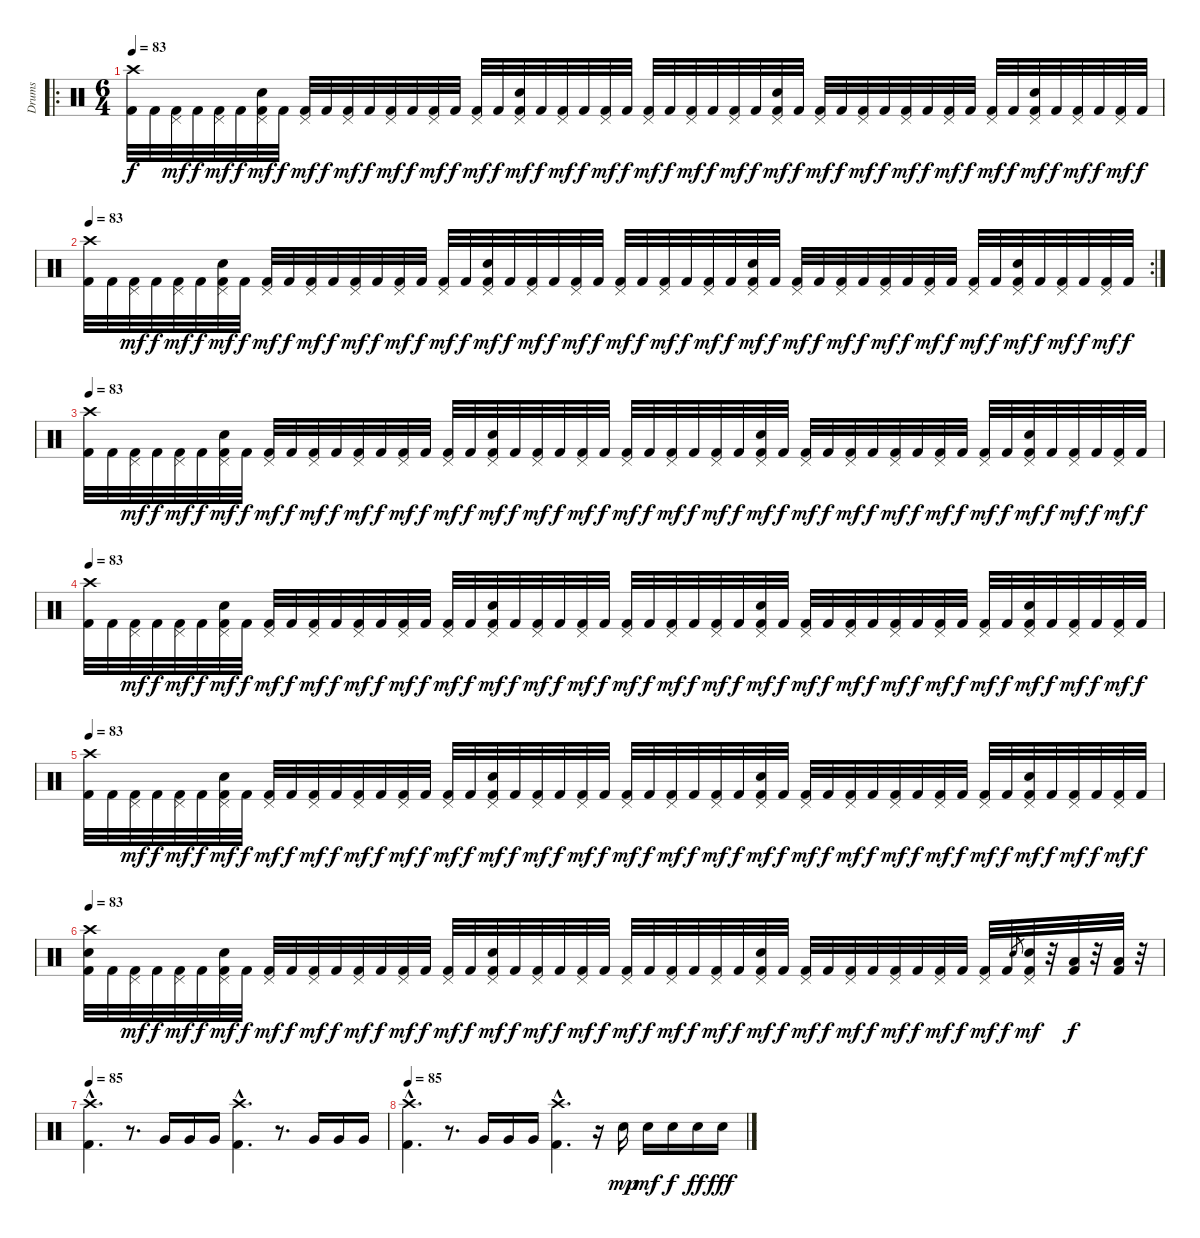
\track ("Drums" "Drums") {instrument percussion}
\staff {score}
\articulation defaults
\ro
\ts (6 4)
\tempo 83
\clef neutral
\ks c
("Crash high (hit)" "Kick (hit) 2").32{dy f} "Kick (hit) 2".32 ("Pedal Hi-Hat (hit)" "Kick (hit) 2").32{dy mf} "Kick (hit) 2".32{dy f} ("Pedal Hi-Hat (hit)" "Kick (hit) 2").32{dy mf} "Kick (hit) 2".32{dy f} ("Pedal Hi-Hat (hit)" "Electric Snare (hit)" "Kick (hit) 2").32{dy mf} "Kick (hit) 2".32{dy f} ("Pedal Hi-Hat (hit)" "Kick (hit) 2").32{dy mf} "Kick (hit) 2".32{dy f} ("Pedal Hi-Hat (hit)" "Kick (hit) 2").32{dy mf} "Kick (hit) 2".32{dy f} ("Pedal Hi-Hat (hit)" "Kick (hit) 2").32{dy mf} "Kick (hit) 2".32{dy f} ("Pedal Hi-Hat (hit)" "Kick (hit) 2").32{dy mf} "Kick (hit) 2".32{dy f} ("Pedal Hi-Hat (hit)" "Kick (hit) 2").32{dy mf} "Kick (hit) 2".32{dy f} ("Pedal Hi-Hat (hit)" "Electric Snare (hit)" "Kick (hit) 2").32{dy mf} "Kick (hit) 2".32{dy f} ("Pedal Hi-Hat (hit)" "Kick (hit) 2").32{dy mf} "Kick (hit) 2".32{dy f} ("Pedal Hi-Hat (hit)" "Kick (hit) 2").32{dy mf} "Kick (hit) 2".32{dy f} ("Pedal Hi-Hat (hit)" "Kick (hit) 2").32{dy mf} "Kick (hit) 2".32{dy f} ("Pedal Hi-Hat (hit)" "Kick (hit) 2").32{dy mf} "Kick (hit) 2".32{dy f} ("Pedal Hi-Hat (hit)" "Kick (hit) 2").32{dy mf} "Kick (hit) 2".32{dy f} ("Pedal Hi-Hat (hit)" "Electric Snare (hit)" "Kick (hit) 2").32{dy mf} "Kick (hit) 2".32{dy f} ("Pedal Hi-Hat (hit)" "Kick (hit) 2").32{dy mf} "Kick (hit) 2".32{dy f} ("Pedal Hi-Hat (hit)" "Kick (hit) 2").32{dy mf} "Kick (hit) 2".32{dy f} ("Pedal Hi-Hat (hit)" "Kick (hit) 2").32{dy mf} "Kick (hit) 2".32{dy f} ("Pedal Hi-Hat (hit)" "Kick (hit) 2").32{dy mf} "Kick (hit) 2".32{dy f} ("Pedal Hi-Hat (hit)" "Kick (hit) 2").32{dy mf} "Kick (hit) 2".32{dy f} ("Pedal Hi-Hat (hit)" "Electric Snare (hit)" "Kick (hit) 2").32{dy mf} "Kick (hit) 2".32{dy f} ("Pedal Hi-Hat (hit)" "Kick (hit) 2").32{dy mf} "Kick (hit) 2".32{dy f} ("Pedal Hi-Hat (hit)" "Kick (hit) 2").32{dy mf} "Kick (hit) 2".32{dy f} |
\rc 2
\tempo 83
("Crash high (hit)" "Kick (hit) 2").32 "Kick (hit) 2".32 ("Pedal Hi-Hat (hit)" "Kick (hit) 2").32{dy mf} "Kick (hit) 2".32{dy f} ("Pedal Hi-Hat (hit)" "Kick (hit) 2").32{dy mf} "Kick (hit) 2".32{dy f} ("Pedal Hi-Hat (hit)" "Electric Snare (hit)" "Kick (hit) 2").32{dy mf} "Kick (hit) 2".32{dy f} ("Pedal Hi-Hat (hit)" "Kick (hit) 2").32{dy mf} "Kick (hit) 2".32{dy f} ("Pedal Hi-Hat (hit)" "Kick (hit) 2").32{dy mf} "Kick (hit) 2".32{dy f} ("Pedal Hi-Hat (hit)" "Kick (hit) 2").32{dy mf} "Kick (hit) 2".32{dy f} ("Pedal Hi-Hat (hit)" "Kick (hit) 2").32{dy mf} "Kick (hit) 2".32{dy f} ("Pedal Hi-Hat (hit)" "Kick (hit) 2").32{dy mf} "Kick (hit) 2".32{dy f} ("Pedal Hi-Hat (hit)" "Electric Snare (hit)" "Kick (hit) 2").32{dy mf} "Kick (hit) 2".32{dy f} ("Pedal Hi-Hat (hit)" "Kick (hit) 2").32{dy mf} "Kick (hit) 2".32{dy f} ("Pedal Hi-Hat (hit)" "Kick (hit) 2").32{dy mf} "Kick (hit) 2".32{dy f} ("Pedal Hi-Hat (hit)" "Kick (hit) 2").32{dy mf} "Kick (hit) 2".32{dy f} ("Pedal Hi-Hat (hit)" "Kick (hit) 2").32{dy mf} "Kick (hit) 2".32{dy f} ("Pedal Hi-Hat (hit)" "Kick (hit) 2").32{dy mf} "Kick (hit) 2".32{dy f} ("Pedal Hi-Hat (hit)" "Electric Snare (hit)" "Kick (hit) 2").32{dy mf} "Kick (hit) 2".32{dy f} ("Pedal Hi-Hat (hit)" "Kick (hit) 2").32{dy mf} "Kick (hit) 2".32{dy f} ("Pedal Hi-Hat (hit)" "Kick (hit) 2").32{dy mf} "Kick (hit) 2".32{dy f} ("Pedal Hi-Hat (hit)" "Kick (hit) 2").32{dy mf} "Kick (hit) 2".32{dy f} ("Pedal Hi-Hat (hit)" "Kick (hit) 2").32{dy mf} "Kick (hit) 2".32{dy f} ("Pedal Hi-Hat (hit)" "Kick (hit) 2").32{dy mf} "Kick (hit) 2".32{dy f} ("Pedal Hi-Hat (hit)" "Electric Snare (hit)" "Kick (hit) 2").32{dy mf} "Kick (hit) 2".32{dy f} ("Pedal Hi-Hat (hit)" "Kick (hit) 2").32{dy mf} "Kick (hit) 2".32{dy f} ("Pedal Hi-Hat (hit)" "Kick (hit) 2").32{dy mf} "Kick (hit) 2".32{dy f} |
\tempo 83
("Crash high (hit)" "Kick (hit) 2").32 "Kick (hit) 2".32 ("Pedal Hi-Hat (hit)" "Kick (hit) 2").32{dy mf} "Kick (hit) 2".32{dy f} ("Pedal Hi-Hat (hit)" "Kick (hit) 2").32{dy mf} "Kick (hit) 2".32{dy f} ("Pedal Hi-Hat (hit)" "Electric Snare (hit)" "Kick (hit) 2").32{dy mf} "Kick (hit) 2".32{dy f} ("Pedal Hi-Hat (hit)" "Kick (hit) 2").32{dy mf} "Kick (hit) 2".32{dy f} ("Pedal Hi-Hat (hit)" "Kick (hit) 2").32{dy mf} "Kick (hit) 2".32{dy f} ("Pedal Hi-Hat (hit)" "Kick (hit) 2").32{dy mf} "Kick (hit) 2".32{dy f} ("Pedal Hi-Hat (hit)" "Kick (hit) 2").32{dy mf} "Kick (hit) 2".32{dy f} ("Pedal Hi-Hat (hit)" "Kick (hit) 2").32{dy mf} "Kick (hit) 2".32{dy f} ("Pedal Hi-Hat (hit)" "Electric Snare (hit)" "Kick (hit) 2").32{dy mf} "Kick (hit) 2".32{dy f} ("Pedal Hi-Hat (hit)" "Kick (hit) 2").32{dy mf} "Kick (hit) 2".32{dy f} ("Pedal Hi-Hat (hit)" "Kick (hit) 2").32{dy mf} "Kick (hit) 2".32{dy f} ("Pedal Hi-Hat (hit)" "Kick (hit) 2").32{dy mf} "Kick (hit) 2".32{dy f} ("Pedal Hi-Hat (hit)" "Kick (hit) 2").32{dy mf} "Kick (hit) 2".32{dy f} ("Pedal Hi-Hat (hit)" "Kick (hit) 2").32{dy mf} "Kick (hit) 2".32{dy f} ("Pedal Hi-Hat (hit)" "Electric Snare (hit)" "Kick (hit) 2").32{dy mf} "Kick (hit) 2".32{dy f} ("Pedal Hi-Hat (hit)" "Kick (hit) 2").32{dy mf} "Kick (hit) 2".32{dy f} ("Pedal Hi-Hat (hit)" "Kick (hit) 2").32{dy mf} "Kick (hit) 2".32{dy f} ("Pedal Hi-Hat (hit)" "Kick (hit) 2").32{dy mf} "Kick (hit) 2".32{dy f} ("Pedal Hi-Hat (hit)" "Kick (hit) 2").32{dy mf} "Kick (hit) 2".32{dy f} ("Pedal Hi-Hat (hit)" "Kick (hit) 2").32{dy mf} "Kick (hit) 2".32{dy f} ("Pedal Hi-Hat (hit)" "Electric Snare (hit)" "Kick (hit) 2").32{dy mf} "Kick (hit) 2".32{dy f} ("Pedal Hi-Hat (hit)" "Kick (hit) 2").32{dy mf} "Kick (hit) 2".32{dy f} ("Pedal Hi-Hat (hit)" "Kick (hit) 2").32{dy mf} "Kick (hit) 2".32{dy f} |
\tempo 83
("Crash high (hit)" "Kick (hit) 2").32 "Kick (hit) 2".32 ("Pedal Hi-Hat (hit)" "Kick (hit) 2").32{dy mf} "Kick (hit) 2".32{dy f} ("Pedal Hi-Hat (hit)" "Kick (hit) 2").32{dy mf} "Kick (hit) 2".32{dy f} ("Pedal Hi-Hat (hit)" "Electric Snare (hit)" "Kick (hit) 2").32{dy mf} "Kick (hit) 2".32{dy f} ("Pedal Hi-Hat (hit)" "Kick (hit) 2").32{dy mf} "Kick (hit) 2".32{dy f} ("Pedal Hi-Hat (hit)" "Kick (hit) 2").32{dy mf} "Kick (hit) 2".32{dy f} ("Pedal Hi-Hat (hit)" "Kick (hit) 2").32{dy mf} "Kick (hit) 2".32{dy f} ("Pedal Hi-Hat (hit)" "Kick (hit) 2").32{dy mf} "Kick (hit) 2".32{dy f} ("Pedal Hi-Hat (hit)" "Kick (hit) 2").32{dy mf} "Kick (hit) 2".32{dy f} ("Pedal Hi-Hat (hit)" "Electric Snare (hit)" "Kick (hit) 2").32{dy mf} "Kick (hit) 2".32{dy f} ("Pedal Hi-Hat (hit)" "Kick (hit) 2").32{dy mf} "Kick (hit) 2".32{dy f} ("Pedal Hi-Hat (hit)" "Kick (hit) 2").32{dy mf} "Kick (hit) 2".32{dy f} ("Pedal Hi-Hat (hit)" "Kick (hit) 2").32{dy mf} "Kick (hit) 2".32{dy f} ("Pedal Hi-Hat (hit)" "Kick (hit) 2").32{dy mf} "Kick (hit) 2".32{dy f} ("Pedal Hi-Hat (hit)" "Kick (hit) 2").32{dy mf} "Kick (hit) 2".32{dy f} ("Pedal Hi-Hat (hit)" "Electric Snare (hit)" "Kick (hit) 2").32{dy mf} "Kick (hit) 2".32{dy f} ("Pedal Hi-Hat (hit)" "Kick (hit) 2").32{dy mf} "Kick (hit) 2".32{dy f} ("Pedal Hi-Hat (hit)" "Kick (hit) 2").32{dy mf} "Kick (hit) 2".32{dy f} ("Pedal Hi-Hat (hit)" "Kick (hit) 2").32{dy mf} "Kick (hit) 2".32{dy f} ("Pedal Hi-Hat (hit)" "Kick (hit) 2").32{dy mf} "Kick (hit) 2".32{dy f} ("Pedal Hi-Hat (hit)" "Kick (hit) 2").32{dy mf} "Kick (hit) 2".32{dy f} ("Pedal Hi-Hat (hit)" "Electric Snare (hit)" "Kick (hit) 2").32{dy mf} "Kick (hit) 2".32{dy f} ("Pedal Hi-Hat (hit)" "Kick (hit) 2").32{dy mf} "Kick (hit) 2".32{dy f} ("Pedal Hi-Hat (hit)" "Kick (hit) 2").32{dy mf} "Kick (hit) 2".32{dy f} |
\tempo 83
("Crash high (hit)" "Kick (hit) 2").32 "Kick (hit) 2".32 ("Pedal Hi-Hat (hit)" "Kick (hit) 2").32{dy mf} "Kick (hit) 2".32{dy f} ("Pedal Hi-Hat (hit)" "Kick (hit) 2").32{dy mf} "Kick (hit) 2".32{dy f} ("Pedal Hi-Hat (hit)" "Electric Snare (hit)" "Kick (hit) 2").32{dy mf} "Kick (hit) 2".32{dy f} ("Pedal Hi-Hat (hit)" "Kick (hit) 2").32{dy mf} "Kick (hit) 2".32{dy f} ("Pedal Hi-Hat (hit)" "Kick (hit) 2").32{dy mf} "Kick (hit) 2".32{dy f} ("Pedal Hi-Hat (hit)" "Kick (hit) 2").32{dy mf} "Kick (hit) 2".32{dy f} ("Pedal Hi-Hat (hit)" "Kick (hit) 2").32{dy mf} "Kick (hit) 2".32{dy f} ("Pedal Hi-Hat (hit)" "Kick (hit) 2").32{dy mf} "Kick (hit) 2".32{dy f} ("Pedal Hi-Hat (hit)" "Electric Snare (hit)" "Kick (hit) 2").32{dy mf} "Kick (hit) 2".32{dy f} ("Pedal Hi-Hat (hit)" "Kick (hit) 2").32{dy mf} "Kick (hit) 2".32{dy f} ("Pedal Hi-Hat (hit)" "Kick (hit) 2").32{dy mf} "Kick (hit) 2".32{dy f} ("Pedal Hi-Hat (hit)" "Kick (hit) 2").32{dy mf} "Kick (hit) 2".32{dy f} ("Pedal Hi-Hat (hit)" "Kick (hit) 2").32{dy mf} "Kick (hit) 2".32{dy f} ("Pedal Hi-Hat (hit)" "Kick (hit) 2").32{dy mf} "Kick (hit) 2".32{dy f} ("Pedal Hi-Hat (hit)" "Electric Snare (hit)" "Kick (hit) 2").32{dy mf} "Kick (hit) 2".32{dy f} ("Pedal Hi-Hat (hit)" "Kick (hit) 2").32{dy mf} "Kick (hit) 2".32{dy f} ("Pedal Hi-Hat (hit)" "Kick (hit) 2").32{dy mf} "Kick (hit) 2".32{dy f} ("Pedal Hi-Hat (hit)" "Kick (hit) 2").32{dy mf} "Kick (hit) 2".32{dy f} ("Pedal Hi-Hat (hit)" "Kick (hit) 2").32{dy mf} "Kick (hit) 2".32{dy f} ("Pedal Hi-Hat (hit)" "Kick (hit) 2").32{dy mf} "Kick (hit) 2".32{dy f} ("Pedal Hi-Hat (hit)" "Electric Snare (hit)" "Kick (hit) 2").32{dy mf} "Kick (hit) 2".32{dy f} ("Pedal Hi-Hat (hit)" "Kick (hit) 2").32{dy mf} "Kick (hit) 2".32{dy f} ("Pedal Hi-Hat (hit)" "Kick (hit) 2").32{dy mf} "Kick (hit) 2".32{dy f} |
\tempo 83
("Crash high (hit)" "Electric Snare (hit)" "Kick (hit) 2").32 "Kick (hit) 2".32 ("Pedal Hi-Hat (hit)" "Kick (hit) 2").32{dy mf} "Kick (hit) 2".32{dy f} ("Pedal Hi-Hat (hit)" "Kick (hit) 2").32{dy mf} "Kick (hit) 2".32{dy f} ("Pedal Hi-Hat (hit)" "Electric Snare (hit)" "Kick (hit) 2").32{dy mf} "Kick (hit) 2".32{dy f} ("Pedal Hi-Hat (hit)" "Kick (hit) 2").32{dy mf} "Kick (hit) 2".32{dy f} ("Pedal Hi-Hat (hit)" "Kick (hit) 2").32{dy mf} "Kick (hit) 2".32{dy f} ("Pedal Hi-Hat (hit)" "Kick (hit) 2").32{dy mf} "Kick (hit) 2".32{dy f} ("Pedal Hi-Hat (hit)" "Kick (hit) 2").32{dy mf} "Kick (hit) 2".32{dy f} ("Pedal Hi-Hat (hit)" "Kick (hit) 2").32{dy mf} "Kick (hit) 2".32{dy f} ("Pedal Hi-Hat (hit)" "Electric Snare (hit)" "Kick (hit) 2").32{dy mf} "Kick (hit) 2".32{dy f} ("Pedal Hi-Hat (hit)" "Kick (hit) 2").32{dy mf} "Kick (hit) 2".32{dy f} ("Pedal Hi-Hat (hit)" "Kick (hit) 2").32{dy mf} "Kick (hit) 2".32{dy f} ("Pedal Hi-Hat (hit)" "Kick (hit) 2").32{dy mf} "Kick (hit) 2".32{dy f} ("Pedal Hi-Hat (hit)" "Kick (hit) 2").32{dy mf} "Kick (hit) 2".32{dy f} ("Pedal Hi-Hat (hit)" "Kick (hit) 2").32{dy mf} "Kick (hit) 2".32{dy f} ("Pedal Hi-Hat (hit)" "Electric Snare (hit)" "Kick (hit) 2").32{dy mf} "Kick (hit) 2".32{dy f} ("Pedal Hi-Hat (hit)" "Kick (hit) 2").32{dy mf} "Kick (hit) 2".32{dy f} ("Pedal Hi-Hat (hit)" "Kick (hit) 2").32{dy mf} "Kick (hit) 2".32{dy f} ("Pedal Hi-Hat (hit)" "Kick (hit) 2").32{dy mf} "Kick (hit) 2".32{dy f} ("Pedal Hi-Hat (hit)" "Kick (hit) 2").32{dy mf} "Kick (hit) 2".32{dy f} ("Pedal Hi-Hat (hit)" "Kick (hit) 2").32{dy mf} "Kick (hit) 2".32{dy f} "Electric Snare (hit)".8{gr} ("Pedal Hi-Hat (hit)" "Electric Snare (hit)" "Kick (hit) 2").32{dy mf} r.32 ("Low Tom (hit)" "Kick (hit) 2").32{dy f} r.32 ("Low Tom (hit)" "Kick (hit) 2").32 r.32 |
\tempo 85
("Crash high (hit)"{hac} "Kick (hit) 2"{hac}).4{d} r.8{d} "Very Low Tom (hit)".16 "Very Low Tom (hit)".16 "Very Low Tom (hit)".16 ("Crash high (hit)"{hac} "Kick (hit) 2"{hac}).4{d} r.8{d} "Very Low Tom (hit)".16 "Very Low Tom (hit)".16 "Very Low Tom (hit)".16 |
\tempo 85
("Crash high (hit)"{hac} "Kick (hit) 2"{hac}).4{d} r.8{d} "Very Low Tom (hit)".16 "Very Low Tom (hit)".16 "Very Low Tom (hit)".16 ("Crash high (hit)"{hac} "Kick (hit) 2"{hac}).4{d} r.16 "Electric Snare (hit)".16{dy mp} "Electric Snare (hit)".16{dy mf} "Electric Snare (hit)".16{dy f} "Electric Snare (hit)".16{dy ff} "Electric Snare (hit)".16{dy fff}
